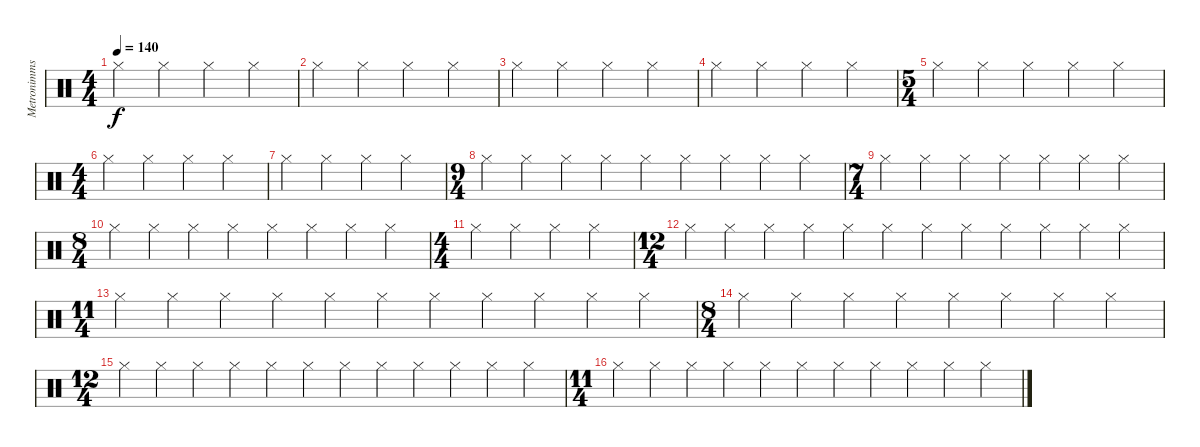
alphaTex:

\track ("Metronimms" "Metronimms") {instrument percussion}
\staff {score}
\articulation defaults
\ts (4 4)
\tempo 140
\clef neutral
\ks c "Hi-Hat (closed)".4{dy f} "Hi-Hat (closed)".4 "Hi-Hat (closed)".4 "Hi-Hat (closed)".4
|
"Hi-Hat (closed)".4 "Hi-Hat (closed)".4 "Hi-Hat (closed)".4 "Hi-Hat (closed)".4 |
"Hi-Hat (closed)".4 "Hi-Hat (closed)".4 "Hi-Hat (closed)".4 "Hi-Hat (closed)".4 |
"Hi-Hat (closed)".4 "Hi-Hat (closed)".4 "Hi-Hat (closed)".4 "Hi-Hat (closed)".4 |
\ts (5 4)
"Hi-Hat (closed)".4 "Hi-Hat (closed)".4 "Hi-Hat (closed)".4 "Hi-Hat (closed)".4 "Hi-Hat (closed)".4 |
\ts (4 4)
"Hi-Hat (closed)".4 "Hi-Hat (closed)".4 "Hi-Hat (closed)".4 "Hi-Hat (closed)".4 |
"Hi-Hat (closed)".4 "Hi-Hat (closed)".4 "Hi-Hat (closed)".4 "Hi-Hat (closed)".4 |
\ts (9 4)
"Hi-Hat (closed)".4 "Hi-Hat (closed)".4 "Hi-Hat (closed)".4 "Hi-Hat (closed)".4 "Hi-Hat (closed)".4 "Hi-Hat (closed)".4 "Hi-Hat (closed)".4 "Hi-Hat (closed)".4 "Hi-Hat (closed)".4 |
\ts (7 4)
"Hi-Hat (closed)".4 "Hi-Hat (closed)".4 "Hi-Hat (closed)".4 "Hi-Hat (closed)".4 "Hi-Hat (closed)".4 "Hi-Hat (closed)".4 "Hi-Hat (closed)".4 |
\ts (8 4)
"Hi-Hat (closed)".4 "Hi-Hat (closed)".4 "Hi-Hat (closed)".4 "Hi-Hat (closed)".4 "Hi-Hat (closed)".4 "Hi-Hat (closed)".4 "Hi-Hat (closed)".4 "Hi-Hat (closed)".4 |
\ts (4 4)
"Hi-Hat (closed)".4 "Hi-Hat (closed)".4 "Hi-Hat (closed)".4 "Hi-Hat (closed)".4 |
\ts (12 4)
"Hi-Hat (closed)".4 "Hi-Hat (closed)".4 "Hi-Hat (closed)".4 "Hi-Hat (closed)".4 "Hi-Hat (closed)".4 "Hi-Hat (closed)".4 "Hi-Hat (closed)".4 "Hi-Hat (closed)".4 "Hi-Hat (closed)".4 "Hi-Hat (closed)".4 "Hi-Hat (closed)".4 "Hi-Hat (closed)".4 |
\ts (11 4)
"Hi-Hat (closed)".4 "Hi-Hat (closed)".4 "Hi-Hat (closed)".4 "Hi-Hat (closed)".4 "Hi-Hat (closed)".4 "Hi-Hat (closed)".4 "Hi-Hat (closed)".4 "Hi-Hat (closed)".4 "Hi-Hat (closed)".4 "Hi-Hat (closed)".4 "Hi-Hat (closed)".4 |
\ts (8 4)
"Hi-Hat (closed)".4 "Hi-Hat (closed)".4 "Hi-Hat (closed)".4 "Hi-Hat (closed)".4 "Hi-Hat (closed)".4 "Hi-Hat (closed)".4 "Hi-Hat (closed)".4 "Hi-Hat (closed)".4 |
\ts (12 4)
"Hi-Hat (closed)".4 "Hi-Hat (closed)".4 "Hi-Hat (closed)".4 "Hi-Hat (closed)".4 "Hi-Hat (closed)".4 "Hi-Hat (closed)".4 "Hi-Hat (closed)".4 "Hi-Hat (closed)".4 "Hi-Hat (closed)".4 "Hi-Hat (closed)".4 "Hi-Hat (closed)".4 "Hi-Hat (closed)".4 |
\ts (11 4)
"Hi-Hat (closed)".4 "Hi-Hat (closed)".4 "Hi-Hat (closed)".4 "Hi-Hat (closed)".4 "Hi-Hat (closed)".4 "Hi-Hat (closed)".4 "Hi-Hat (closed)".4 "Hi-Hat (closed)".4 "Hi-Hat (closed)".4 "Hi-Hat (closed)".4 "Hi-Hat (closed)".4
